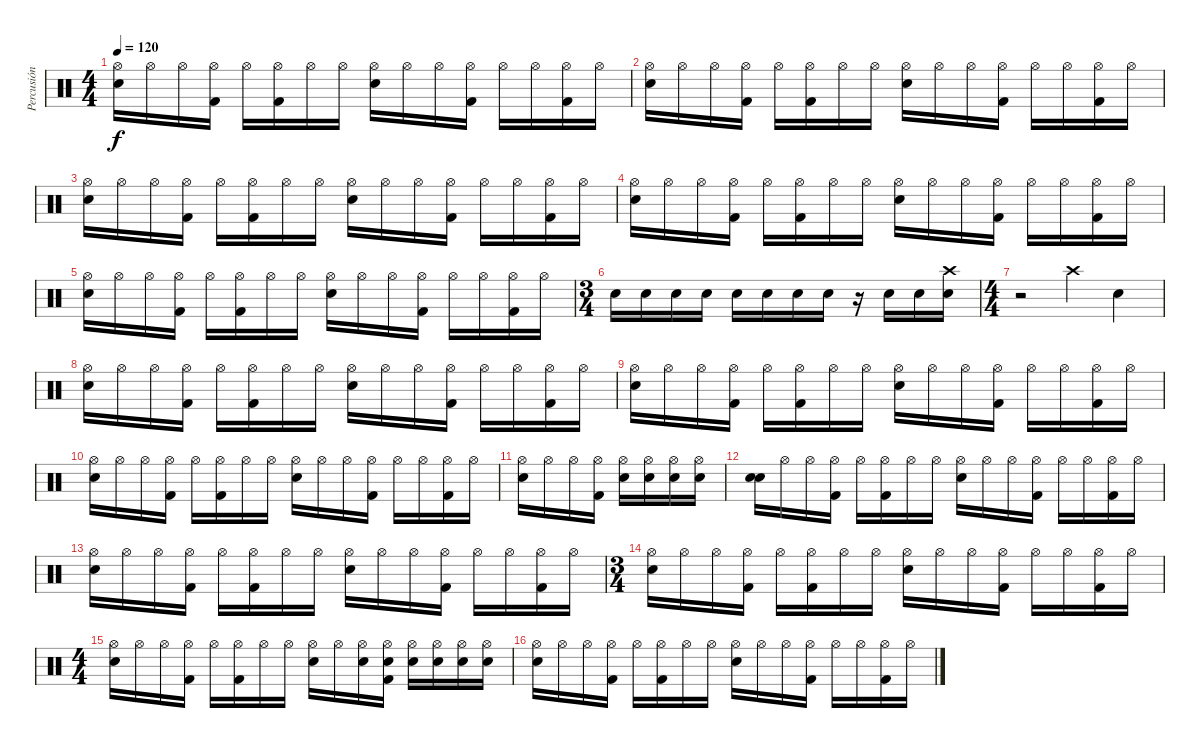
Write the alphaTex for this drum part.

\track ("Percusión" "Percusión") {instrument percussion}
\staff {score}
\articulation defaults
\ts (4 4)
\tempo 120
\clef neutral
\ks c
("Hi-Hat (open)" "Snare (hit) 2").16{dy f} "Hi-Hat (open)".16 "Hi-Hat (open)".16 ("Hi-Hat (open)" "Kick (hit) 2").16 "Hi-Hat (open)".16 ("Hi-Hat (open)" "Kick (hit) 2").16 "Hi-Hat (open)".16 "Hi-Hat (open)".16 ("Hi-Hat (open)" "Snare (hit) 2").16 "Hi-Hat (open)".16 "Hi-Hat (open)".16 ("Hi-Hat (open)" "Kick (hit) 2").16 "Hi-Hat (open)".16 "Hi-Hat (open)".16 ("Hi-Hat (open)" "Kick (hit) 2").16 "Hi-Hat (open)".16 |
("Hi-Hat (open)" "Snare (hit) 2").16 "Hi-Hat (open)".16 "Hi-Hat (open)".16 ("Hi-Hat (open)" "Kick (hit) 2").16 "Hi-Hat (open)".16 ("Hi-Hat (open)" "Kick (hit) 2").16 "Hi-Hat (open)".16 "Hi-Hat (open)".16 ("Hi-Hat (open)" "Snare (hit) 2").16 "Hi-Hat (open)".16 "Hi-Hat (open)".16 ("Hi-Hat (open)" "Kick (hit) 2").16 "Hi-Hat (open)".16 "Hi-Hat (open)".16 ("Hi-Hat (open)" "Kick (hit) 2").16 "Hi-Hat (open)".16 |
("Hi-Hat (open)" "Snare (hit) 2").16 "Hi-Hat (open)".16 "Hi-Hat (open)".16 ("Hi-Hat (open)" "Kick (hit) 2").16 "Hi-Hat (open)".16 ("Hi-Hat (open)" "Kick (hit) 2").16 "Hi-Hat (open)".16 "Hi-Hat (open)".16 ("Hi-Hat (open)" "Snare (hit) 2").16 "Hi-Hat (open)".16 "Hi-Hat (open)".16 ("Hi-Hat (open)" "Kick (hit) 2").16 "Hi-Hat (open)".16 "Hi-Hat (open)".16 ("Hi-Hat (open)" "Kick (hit) 2").16 "Hi-Hat (open)".16 |
("Hi-Hat (open)" "Snare (hit) 2").16 "Hi-Hat (open)".16 "Hi-Hat (open)".16 ("Hi-Hat (open)" "Kick (hit) 2").16 "Hi-Hat (open)".16 ("Hi-Hat (open)" "Kick (hit) 2").16 "Hi-Hat (open)".16 "Hi-Hat (open)".16 ("Hi-Hat (open)" "Snare (hit) 2").16 "Hi-Hat (open)".16 "Hi-Hat (open)".16 ("Hi-Hat (open)" "Kick (hit) 2").16 "Hi-Hat (open)".16 "Hi-Hat (open)".16 ("Hi-Hat (open)" "Kick (hit) 2").16 "Hi-Hat (open)".16 |
("Hi-Hat (open)" "Snare (hit) 2").16 "Hi-Hat (open)".16 "Hi-Hat (open)".16 ("Hi-Hat (open)" "Kick (hit) 2").16 "Hi-Hat (open)".16 ("Hi-Hat (open)" "Kick (hit) 2").16 "Hi-Hat (open)".16 "Hi-Hat (open)".16 ("Hi-Hat (open)" "Snare (hit) 2").16 "Hi-Hat (open)".16 "Hi-Hat (open)".16 ("Hi-Hat (open)" "Kick (hit) 2").16 "Hi-Hat (open)".16 "Hi-Hat (open)".16 ("Hi-Hat (open)" "Kick (hit) 2").16 "Hi-Hat (open)".16 |
\ts (3 4)
"Snare (hit) 2".16 "Snare (hit) 2".16 "Snare (hit) 2".16 "Snare (hit) 2".16 "Snare (hit) 2".16 "Snare (hit) 2".16 "Snare (hit) 2".16 "Snare (hit) 2".16 r.16 "Snare (hit) 2".16 "Snare (hit) 2".16 ("Snare (hit) 2" "Crash high (hit)").16 |
\ts (4 4)
r.2 "Crash high (hit)".4 "Snare (hit) 2".4 |
("Hi-Hat (open)" "Snare (hit) 2").16 "Hi-Hat (open)".16 "Hi-Hat (open)".16 ("Hi-Hat (open)" "Kick (hit) 2").16 "Hi-Hat (open)".16 ("Hi-Hat (open)" "Kick (hit) 2").16 "Hi-Hat (open)".16 "Hi-Hat (open)".16 ("Hi-Hat (open)" "Snare (hit) 2").16 "Hi-Hat (open)".16 "Hi-Hat (open)".16 ("Hi-Hat (open)" "Kick (hit) 2").16 "Hi-Hat (open)".16 "Hi-Hat (open)".16 ("Hi-Hat (open)" "Kick (hit) 2").16 "Hi-Hat (open)".16 |
("Hi-Hat (open)" "Snare (hit) 2").16 "Hi-Hat (open)".16 "Hi-Hat (open)".16 ("Hi-Hat (open)" "Kick (hit) 2").16 "Hi-Hat (open)".16 ("Hi-Hat (open)" "Kick (hit) 2").16 "Hi-Hat (open)".16 "Hi-Hat (open)".16 ("Hi-Hat (open)" "Snare (hit) 2").16 "Hi-Hat (open)".16 "Hi-Hat (open)".16 ("Hi-Hat (open)" "Kick (hit) 2").16 "Hi-Hat (open)".16 "Hi-Hat (open)".16 ("Hi-Hat (open)" "Kick (hit) 2").16 "Hi-Hat (open)".16 |
("Hi-Hat (open)" "Snare (hit) 2").16 "Hi-Hat (open)".16 "Hi-Hat (open)".16 ("Hi-Hat (open)" "Kick (hit) 2").16 "Hi-Hat (open)".16 ("Hi-Hat (open)" "Kick (hit) 2").16 "Hi-Hat (open)".16 "Hi-Hat (open)".16 ("Hi-Hat (open)" "Snare (hit) 2").16 "Hi-Hat (open)".16 "Hi-Hat (open)".16 ("Hi-Hat (open)" "Kick (hit) 2").16 "Hi-Hat (open)".16 "Hi-Hat (open)".16 ("Hi-Hat (open)" "Kick (hit) 2").16 "Hi-Hat (open)".16 |
("Hi-Hat (open)" "Snare (hit) 2").16 "Hi-Hat (open)".16 "Hi-Hat (open)".16 ("Hi-Hat (open)" "Kick (hit) 2").16 ("Hi-Hat (open)" "Snare (hit) 2").16 ("Hi-Hat (open)" "Snare (hit) 2").16 ("Hi-Hat (open)" "Snare (hit) 2").16 ("Hi-Hat (open)" "Snare (hit) 2").16 |
("Snare (hit) 2" "Snare (hit) 2").16 "Hi-Hat (open)".16 "Hi-Hat (open)".16 ("Hi-Hat (open)" "Kick (hit) 2").16 "Hi-Hat (open)".16 ("Hi-Hat (open)" "Kick (hit) 2").16 "Hi-Hat (open)".16 "Hi-Hat (open)".16 ("Hi-Hat (open)" "Snare (hit) 2").16 "Hi-Hat (open)".16 "Hi-Hat (open)".16 ("Hi-Hat (open)" "Kick (hit) 2").16 "Hi-Hat (open)".16 "Hi-Hat (open)".16 ("Hi-Hat (open)" "Kick (hit) 2").16 "Hi-Hat (open)".16 |
("Hi-Hat (open)" "Snare (hit) 2").16 "Hi-Hat (open)".16 "Hi-Hat (open)".16 ("Hi-Hat (open)" "Kick (hit) 2").16 "Hi-Hat (open)".16 ("Hi-Hat (open)" "Kick (hit) 2").16 "Hi-Hat (open)".16 "Hi-Hat (open)".16 ("Hi-Hat (open)" "Snare (hit) 2").16 "Hi-Hat (open)".16 "Hi-Hat (open)".16 ("Hi-Hat (open)" "Kick (hit) 2").16 "Hi-Hat (open)".16 "Hi-Hat (open)".16 ("Hi-Hat (open)" "Kick (hit) 2").16 "Hi-Hat (open)".16 |
\ts (3 4)
("Hi-Hat (open)" "Snare (hit) 2").16 "Hi-Hat (open)".16 "Hi-Hat (open)".16 ("Hi-Hat (open)" "Kick (hit) 2").16 "Hi-Hat (open)".16 ("Hi-Hat (open)" "Kick (hit) 2").16 "Hi-Hat (open)".16 "Hi-Hat (open)".16 ("Hi-Hat (open)" "Snare (hit) 2").16 "Hi-Hat (open)".16 "Hi-Hat (open)".16 ("Hi-Hat (open)" "Kick (hit) 2").16 "Hi-Hat (open)".16 "Hi-Hat (open)".16 ("Hi-Hat (open)" "Kick (hit) 2").16 "Hi-Hat (open)".16 |
\ts (4 4)
("Hi-Hat (open)" "Snare (hit) 2").16 "Hi-Hat (open)".16 "Hi-Hat (open)".16 ("Hi-Hat (open)" "Kick (hit) 2").16 "Hi-Hat (open)".16 ("Hi-Hat (open)" "Kick (hit) 2").16 "Hi-Hat (open)".16 "Hi-Hat (open)".16 ("Hi-Hat (open)" "Snare (hit) 2").16 "Hi-Hat (open)".16 ("Hi-Hat (open)" "Snare (hit) 2").16 ("Hi-Hat (open)" "Snare (hit) 2" "Kick (hit) 2").16 ("Hi-Hat (open)" "Snare (hit) 2").16 ("Hi-Hat (open)" "Snare (hit) 2").16 ("Hi-Hat (open)" "Snare (hit) 2").16 ("Hi-Hat (open)" "Snare (hit) 2").16 |
("Hi-Hat (open)" "Snare (hit) 2").16 "Hi-Hat (open)".16 "Hi-Hat (open)".16 ("Hi-Hat (open)" "Kick (hit) 2").16 "Hi-Hat (open)".16 ("Hi-Hat (open)" "Kick (hit) 2").16 "Hi-Hat (open)".16 "Hi-Hat (open)".16 ("Hi-Hat (open)" "Snare (hit) 2").16 "Hi-Hat (open)".16 "Hi-Hat (open)".16 ("Hi-Hat (open)" "Kick (hit) 2").16 "Hi-Hat (open)".16 "Hi-Hat (open)".16 ("Hi-Hat (open)" "Kick (hit) 2").16 "Hi-Hat (open)".16
